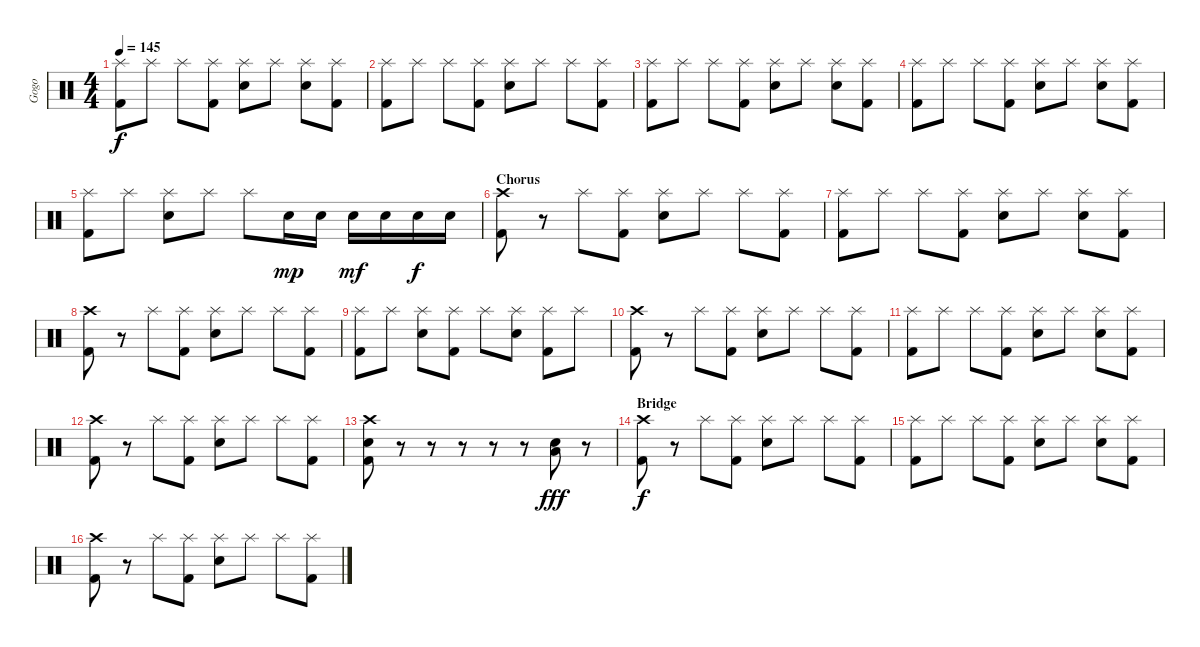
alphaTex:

\track ("Gogo" "Gogo") {instrument percussion}
\staff {score}
\articulation defaults
\ts (4 4)
\tempo 145
\clef neutral
\ks c
("Splash (hit)" "Kick (hit) 2").8{dy f} "Splash (hit)".8 "Splash (hit)".8 ("Splash (hit)" "Kick (hit) 2").8 ("Splash (hit)" "Electric Snare (hit)").8 "Splash (hit)".8 ("Splash (hit)" "Electric Snare (hit)").8 ("Splash (hit)" "Kick (hit) 2").8 |
("Splash (hit)" "Kick (hit) 2").8 "Splash (hit)".8 "Splash (hit)".8 ("Splash (hit)" "Kick (hit) 2").8 ("Splash (hit)" "Electric Snare (hit)").8 "Splash (hit)".8 "Splash (hit)".8 ("Splash (hit)" "Kick (hit) 2").8 |
("Splash (hit)" "Kick (hit) 2").8 "Splash (hit)".8 "Splash (hit)".8 ("Splash (hit)" "Kick (hit) 2").8 ("Splash (hit)" "Electric Snare (hit)").8 "Splash (hit)".8 ("Splash (hit)" "Electric Snare (hit)").8 ("Splash (hit)" "Kick (hit) 2").8 |
("Splash (hit)" "Kick (hit) 2").8 "Splash (hit)".8 "Splash (hit)".8 ("Splash (hit)" "Kick (hit) 2").8 ("Splash (hit)" "Electric Snare (hit)").8 "Splash (hit)".8 ("Splash (hit)" "Electric Snare (hit)").8 ("Splash (hit)" "Kick (hit) 2").8 |
("Splash (hit)" "Kick (hit) 2").8 "Splash (hit)".8 ("Splash (hit)" "Electric Snare (hit)").8 "Splash (hit)".8 "Splash (hit)".8 "Electric Snare (hit)".16{dy mp} "Electric Snare (hit)".16 "Electric Snare (hit)".16{dy mf} "Electric Snare (hit)".16 "Electric Snare (hit)".16{dy f} "Electric Snare (hit)".16 |
\section ("" "Chorus")
("Crash high (hit)" "Kick (hit) 2").8 r.8 "Splash (hit)".8 ("Splash (hit)" "Kick (hit) 2").8 ("Splash (hit)" "Electric Snare (hit)").8 "Splash (hit)".8 "Splash (hit)".8 ("Splash (hit)" "Kick (hit) 2").8 |
("Splash (hit)" "Kick (hit) 2").8 "Splash (hit)".8 "Splash (hit)".8 ("Splash (hit)" "Kick (hit) 2").8 ("Splash (hit)" "Electric Snare (hit)").8 "Splash (hit)".8 ("Splash (hit)" "Electric Snare (hit)").8 ("Splash (hit)" "Kick (hit) 2").8 |
("Crash high (hit)" "Kick (hit) 2").8 r.8 "Splash (hit)".8 ("Splash (hit)" "Kick (hit) 2").8 ("Splash (hit)" "Electric Snare (hit)").8 "Splash (hit)".8 "Splash (hit)".8 ("Splash (hit)" "Kick (hit) 2").8 |
("Splash (hit)" "Kick (hit) 2").8 "Splash (hit)".8 ("Splash (hit)" "Electric Snare (hit)").8 ("Splash (hit)" "Kick (hit) 2").8 "Splash (hit)".8 ("Splash (hit)" "Electric Snare (hit)").8 ("Splash (hit)" "Kick (hit) 2").8 "Splash (hit)".8 |
("Crash high (hit)" "Kick (hit) 2").8 r.8 "Splash (hit)".8 ("Splash (hit)" "Kick (hit) 2").8 ("Splash (hit)" "Electric Snare (hit)").8 "Splash (hit)".8 "Splash (hit)".8 ("Splash (hit)" "Kick (hit) 2").8 |
("Splash (hit)" "Kick (hit) 2").8 "Splash (hit)".8 "Splash (hit)".8 ("Splash (hit)" "Kick (hit) 2").8 ("Splash (hit)" "Electric Snare (hit)").8 "Splash (hit)".8 ("Splash (hit)" "Electric Snare (hit)").8 ("Splash (hit)" "Kick (hit) 2").8 |
("Crash high (hit)" "Kick (hit) 2").8 r.8 "Splash (hit)".8 ("Splash (hit)" "Kick (hit) 2").8 ("Splash (hit)" "Electric Snare (hit)").8 "Splash (hit)".8 "Splash (hit)".8 ("Splash (hit)" "Kick (hit) 2").8 |
("Crash high (hit)" "Electric Snare (hit)" "Kick (hit) 2").8 r.8 r.8 r.8 r.8 r.8 ("Electric Snare (hit)" "Low Floor Tom (hit)").8{dy fff} r.8 |
\section ("" "Bridge")
("Crash high (hit)" "Kick (hit) 2").8{dy f} r.8 "Splash (hit)".8 ("Splash (hit)" "Kick (hit) 2").8 ("Splash (hit)" "Electric Snare (hit)").8 "Splash (hit)".8 "Splash (hit)".8 ("Splash (hit)" "Kick (hit) 2").8 |
("Splash (hit)" "Kick (hit) 2").8 "Splash (hit)".8 "Splash (hit)".8 ("Splash (hit)" "Kick (hit) 2").8 ("Splash (hit)" "Electric Snare (hit)").8 "Splash (hit)".8 ("Splash (hit)" "Electric Snare (hit)").8 ("Splash (hit)" "Kick (hit) 2").8 |
("Crash high (hit)" "Kick (hit) 2").8 r.8 "Splash (hit)".8 ("Splash (hit)" "Kick (hit) 2").8 ("Splash (hit)" "Electric Snare (hit)").8 "Splash (hit)".8 "Splash (hit)".8 ("Splash (hit)" "Kick (hit) 2").8
